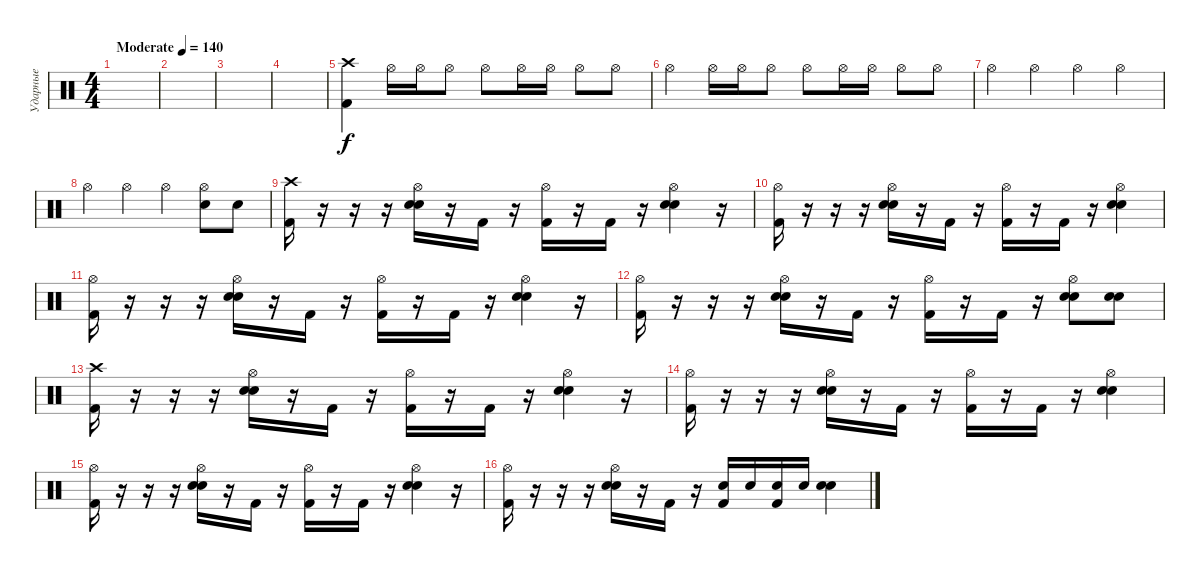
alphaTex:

\track ("Ударные" "Ударные") {instrument percussion}
\staff {score}
\articulation defaults
\ts (4 4)
\tempo (140 "Moderate")
\clef neutral
\ks c
|
|
|
|
("Crash high (hit)" "Kick (hit) 2").4 "Hi-Hat (open)".16 "Hi-Hat (open)".16 "Hi-Hat (open)".8 "Hi-Hat (open)".8 "Hi-Hat (open)".16 "Hi-Hat (open)".16 "Hi-Hat (open)".8 "Hi-Hat (open)".8 |
"Hi-Hat (open)".4 "Hi-Hat (open)".16 "Hi-Hat (open)".16 "Hi-Hat (open)".8 "Hi-Hat (open)".8 "Hi-Hat (open)".16 "Hi-Hat (open)".16 "Hi-Hat (open)".8 "Hi-Hat (open)".8 |
"Hi-Hat (open)".4 "Hi-Hat (open)".4 "Hi-Hat (open)".4 "Hi-Hat (open)".4 |
"Hi-Hat (open)".4 "Hi-Hat (open)".4 "Hi-Hat (open)".4 ("Hi-Hat (open)" "Electric Snare (hit)").8 "Electric Snare (hit)".8 |
("Crash high (hit)" "Kick (hit) 2").16 r.16 r.16 r.16 ("Hi-Hat (open)" "Electric Snare (hit)" "Snare (hit) 2").16 r.16 "Kick (hit) 2".16 r.16 ("Hi-Hat (open)" "Kick (hit) 2").16 r.16 "Kick (hit) 2".16 r.16 ("Hi-Hat (open)" "Electric Snare (hit)" "Snare (hit) 2").4 r.16 |
("Hi-Hat (open)" "Kick (hit) 2").16 r.16 r.16 r.16 ("Hi-Hat (open)" "Electric Snare (hit)" "Snare (hit) 2").16 r.16 "Kick (hit) 2".16 r.16 ("Hi-Hat (open)" "Kick (hit) 2").16 r.16 "Kick (hit) 2".16 r.16 ("Hi-Hat (open)" "Electric Snare (hit)" "Snare (hit) 2").4 |
("Hi-Hat (open)" "Kick (hit) 2").16 r.16 r.16 r.16 ("Hi-Hat (open)" "Electric Snare (hit)" "Snare (hit) 2").16 r.16 "Kick (hit) 2".16 r.16 ("Hi-Hat (open)" "Kick (hit) 2").16 r.16 "Kick (hit) 2".16 r.16 ("Hi-Hat (open)" "Electric Snare (hit)" "Snare (hit) 2").4 r.16 |
("Hi-Hat (open)" "Kick (hit) 2").16 r.16 r.16 r.16 ("Hi-Hat (open)" "Electric Snare (hit)" "Snare (hit) 2").16 r.16 "Kick (hit) 2".16 r.16 ("Hi-Hat (open)" "Kick (hit) 2").16 r.16 "Kick (hit) 2".16 r.16 ("Hi-Hat (open)" "Electric Snare (hit)" "Snare (hit) 2").8 ("Electric Snare (hit)" "Snare (hit) 2").8 |
("Crash high (hit)" "Kick (hit) 2").16 r.16 r.16 r.16 ("Hi-Hat (open)" "Electric Snare (hit)" "Snare (hit) 2").16 r.16 "Kick (hit) 2".16 r.16 ("Hi-Hat (open)" "Kick (hit) 2").16 r.16 "Kick (hit) 2".16 r.16 ("Hi-Hat (open)" "Electric Snare (hit)" "Snare (hit) 2").4 r.16 |
("Hi-Hat (open)" "Kick (hit) 2").16 r.16 r.16 r.16 ("Hi-Hat (open)" "Electric Snare (hit)" "Snare (hit) 2").16 r.16 "Kick (hit) 2".16 r.16 ("Hi-Hat (open)" "Kick (hit) 2").16 r.16 "Kick (hit) 2".16 r.16 ("Hi-Hat (open)" "Electric Snare (hit)" "Snare (hit) 2").4 |
("Hi-Hat (open)" "Kick (hit) 2").16 r.16 r.16 r.16 ("Hi-Hat (open)" "Electric Snare (hit)" "Snare (hit) 2").16 r.16 "Kick (hit) 2".16 r.16 ("Hi-Hat (open)" "Kick (hit) 2").16 r.16 "Kick (hit) 2".16 r.16 ("Hi-Hat (open)" "Electric Snare (hit)" "Snare (hit) 2").4 r.16 |
("Hi-Hat (open)" "Kick (hit) 2").16 r.16 r.16 r.16 ("Hi-Hat (open)" "Electric Snare (hit)" "Snare (hit) 2").16 r.16 "Kick (hit) 2".16 r.16 ("Kick (hit) 2" "Electric Snare (hit)").16 "Electric Snare (hit)".16 ("Kick (hit) 2" "Electric Snare (hit)").16 "Electric Snare (hit)".16 ("Electric Snare (hit)" "Snare (hit) 2").4
